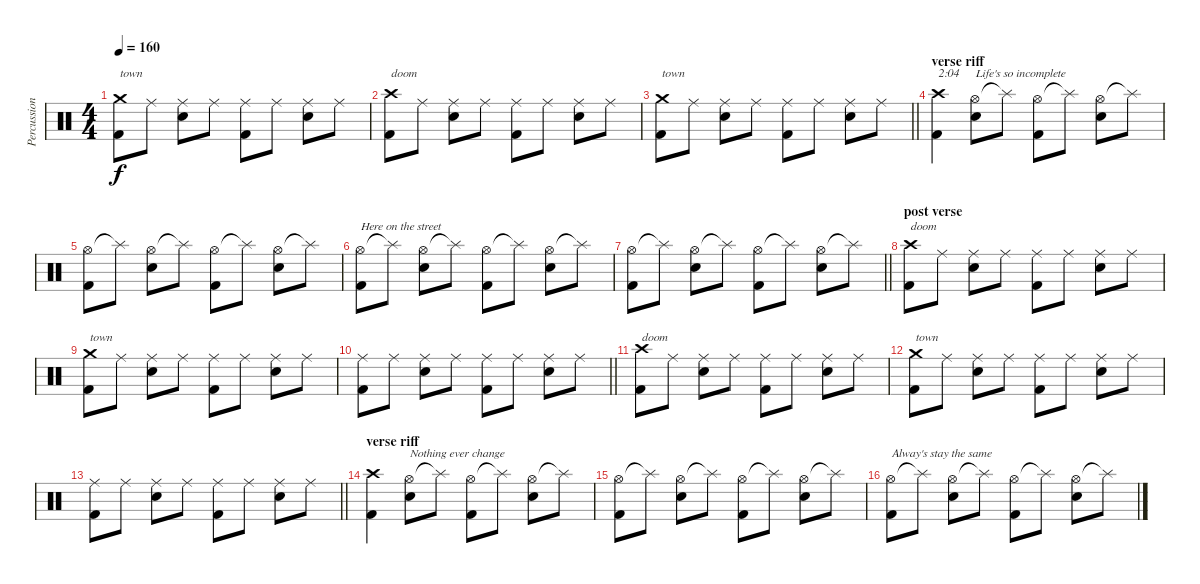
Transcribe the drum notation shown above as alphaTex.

\track ("Percussion" "Percussion") {mute instrument percussion}
\staff {score}
\articulation defaults
\ts (4 4)
\tempo 160
\clef neutral
\ks c
("Crash medium (hit)" "Kick (hit) 2").8{txt "town" dy f} "Ride (middle)".8 ("Ride (middle)" "Snare (hit) 2").8 "Ride (middle)".8 ("Ride (middle)" "Kick (hit) 2").8 "Ride (middle)".8 ("Ride (middle)" "Snare (hit) 2").8 "Ride (middle)".8 |
("Crash high (hit)" "Kick (hit) 2").8{txt "doom"} "Ride (middle)".8 ("Ride (middle)" "Snare (hit) 2").8 "Ride (middle)".8 ("Ride (middle)" "Kick (hit) 2").8 "Ride (middle)".8 ("Ride (middle)" "Snare (hit) 2").8 "Ride (middle)".8 |
\barLineRight lightlight
("Crash medium (hit)" "Kick (hit) 2").8{txt "town"} "Ride (middle)".8 ("Ride (middle)" "Snare (hit) 2").8 "Ride (middle)".8 ("Ride (middle)" "Kick (hit) 2").8 "Ride (middle)".8 ("Ride (middle)" "Snare (hit) 2").8 "Ride (middle)".8 |
\section ("" "verse riff")
("Crash high (hit)" "Kick (hit) 2").4{txt "2:04"} ("Hi-Hat (open)" "Snare (hit) 2").8{txt "Life's so incomplete"} "Splash (hit)"{t}.8 ("Hi-Hat (open)" "Kick (hit) 2").8 "Splash (hit)"{t}.8 ("Hi-Hat (open)" "Snare (hit) 2").8 "Splash (hit)"{t}.8 |
("Hi-Hat (open)" "Kick (hit) 2").8 "Splash (hit)"{t}.8 ("Hi-Hat (open)" "Snare (hit) 2").8 "Splash (hit)"{t}.8 ("Hi-Hat (open)" "Kick (hit) 2").8 "Splash (hit)"{t}.8 ("Hi-Hat (open)" "Snare (hit) 2").8 "Splash (hit)"{t}.8 |
("Hi-Hat (open)" "Kick (hit) 2").8{txt "Here on the street"} "Splash (hit)"{t}.8 ("Hi-Hat (open)" "Snare (hit) 2").8 "Splash (hit)"{t}.8 ("Hi-Hat (open)" "Kick (hit) 2").8 "Splash (hit)"{t}.8 ("Hi-Hat (open)" "Snare (hit) 2").8 "Splash (hit)"{t}.8 |
\barLineRight lightlight
("Hi-Hat (open)" "Kick (hit) 2").8 "Splash (hit)"{t}.8 ("Hi-Hat (open)" "Snare (hit) 2").8 "Splash (hit)"{t}.8 ("Hi-Hat (open)" "Kick (hit) 2").8 "Splash (hit)"{t}.8 ("Hi-Hat (open)" "Snare (hit) 2").8 "Splash (hit)"{t}.8 |
\section ("" "post verse")
("Crash high (hit)" "Kick (hit) 2").8{txt "doom"} "Ride (middle)".8 ("Ride (middle)" "Snare (hit) 2").8 "Ride (middle)".8 ("Ride (middle)" "Kick (hit) 2").8 "Ride (middle)".8 ("Ride (middle)" "Snare (hit) 2").8 "Ride (middle)".8 |
("Crash medium (hit)" "Kick (hit) 2").8{txt "town"} "Ride (middle)".8 ("Ride (middle)" "Snare (hit) 2").8 "Ride (middle)".8 ("Ride (middle)" "Kick (hit) 2").8 "Ride (middle)".8 ("Ride (middle)" "Snare (hit) 2").8 "Ride (middle)".8 |
\barLineRight lightlight
("Ride (middle)" "Kick (hit) 2").8 "Ride (middle)".8 ("Ride (middle)" "Snare (hit) 2").8 "Ride (middle)".8 ("Ride (middle)" "Kick (hit) 2").8 "Ride (middle)".8 ("Ride (middle)" "Snare (hit) 2").8 "Ride (middle)".8 |
("Crash high (hit)" "Kick (hit) 2").8{txt "doom"} "Ride (middle)".8 ("Ride (middle)" "Snare (hit) 2").8 "Ride (middle)".8 ("Ride (middle)" "Kick (hit) 2").8 "Ride (middle)".8 ("Ride (middle)" "Snare (hit) 2").8 "Ride (middle)".8 |
("Crash medium (hit)" "Kick (hit) 2").8{txt "town"} "Ride (middle)".8 ("Ride (middle)" "Snare (hit) 2").8 "Ride (middle)".8 ("Ride (middle)" "Kick (hit) 2").8 "Ride (middle)".8 ("Ride (middle)" "Snare (hit) 2").8 "Ride (middle)".8 |
\barLineRight lightlight
("Ride (middle)" "Kick (hit) 2").8 "Ride (middle)".8 ("Ride (middle)" "Snare (hit) 2").8 "Ride (middle)".8 ("Ride (middle)" "Kick (hit) 2").8 "Ride (middle)".8 ("Ride (middle)" "Snare (hit) 2").8 "Ride (middle)".8 |
\section ("" "verse riff")
("Crash high (hit)" "Kick (hit) 2").4 ("Hi-Hat (open)" "Snare (hit) 2").8{txt "Nothing ever change"} "Splash (hit)"{t}.8 ("Hi-Hat (open)" "Kick (hit) 2").8 "Splash (hit)"{t}.8 ("Hi-Hat (open)" "Snare (hit) 2").8 "Splash (hit)"{t}.8 |
("Hi-Hat (open)" "Kick (hit) 2").8 "Splash (hit)"{t}.8 ("Hi-Hat (open)" "Snare (hit) 2").8 "Splash (hit)"{t}.8 ("Hi-Hat (open)" "Kick (hit) 2").8 "Splash (hit)"{t}.8 ("Hi-Hat (open)" "Snare (hit) 2").8 "Splash (hit)"{t}.8 |
("Hi-Hat (open)" "Kick (hit) 2").8{txt "Alway's stay the same"} "Splash (hit)"{t}.8 ("Hi-Hat (open)" "Snare (hit) 2").8 "Splash (hit)"{t}.8 ("Hi-Hat (open)" "Kick (hit) 2").8 "Splash (hit)"{t}.8 ("Hi-Hat (open)" "Snare (hit) 2").8 "Splash (hit)"{t}.8
